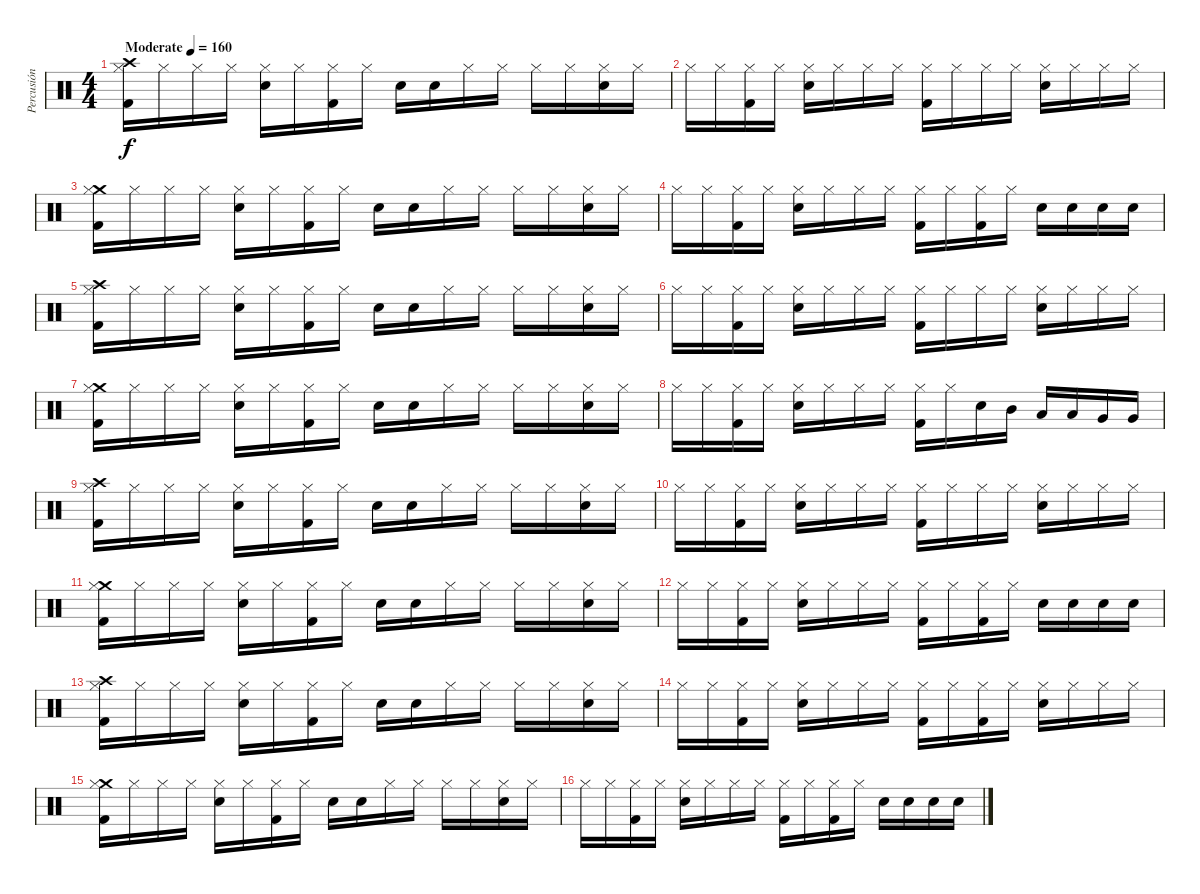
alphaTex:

\track ("Percusión" "Percusión") {instrument percussion}
\staff {score}
\articulation defaults
\ts (4 4)
\tempo (160 "Moderate")
\clef neutral
\ks c
("Crash high (hit)" "Hi-Hat (closed)" "Kick (hit) 2").16{dy f} "Hi-Hat (closed)".16 "Hi-Hat (closed)".16 "Hi-Hat (closed)".16 ("Hi-Hat (closed)" "Snare (hit) 2").16 "Hi-Hat (closed)".16 ("Hi-Hat (closed)" "Kick (hit) 2").16 "Hi-Hat (closed)".16 "Snare (hit) 2".16 "Snare (hit) 2".16 "Hi-Hat (closed)".16 "Hi-Hat (closed)".16 "Hi-Hat (closed)".16 "Hi-Hat (closed)".16 ("Hi-Hat (closed)" "Snare (hit) 2").16 "Hi-Hat (closed)".16 |
"Hi-Hat (closed)".16 "Hi-Hat (closed)".16 ("Hi-Hat (closed)" "Kick (hit) 2").16 "Hi-Hat (closed)".16 ("Hi-Hat (closed)" "Snare (hit) 2").16 "Hi-Hat (closed)".16 "Hi-Hat (closed)".16 "Hi-Hat (closed)".16 ("Hi-Hat (closed)" "Kick (hit) 2").16 "Hi-Hat (closed)".16 "Hi-Hat (closed)".16 "Hi-Hat (closed)".16 ("Hi-Hat (closed)" "Snare (hit) 2").16 "Hi-Hat (closed)".16 "Hi-Hat (closed)".16 "Hi-Hat (closed)".16 |
("Crash medium (hit)" "Hi-Hat (closed)" "Kick (hit) 2").16 "Hi-Hat (closed)".16 "Hi-Hat (closed)".16 "Hi-Hat (closed)".16 ("Hi-Hat (closed)" "Snare (hit) 2").16 "Hi-Hat (closed)".16 ("Hi-Hat (closed)" "Kick (hit) 2").16 "Hi-Hat (closed)".16 "Snare (hit) 2".16 "Snare (hit) 2".16 "Hi-Hat (closed)".16 "Hi-Hat (closed)".16 "Hi-Hat (closed)".16 "Hi-Hat (closed)".16 ("Hi-Hat (closed)" "Snare (hit) 2").16 "Hi-Hat (closed)".16 |
"Hi-Hat (closed)".16 "Hi-Hat (closed)".16 ("Hi-Hat (closed)" "Kick (hit) 2").16 "Hi-Hat (closed)".16 ("Hi-Hat (closed)" "Snare (hit) 2").16 "Hi-Hat (closed)".16 "Hi-Hat (closed)".16 "Hi-Hat (closed)".16 ("Hi-Hat (closed)" "Kick (hit) 2").16 "Hi-Hat (closed)".16 ("Hi-Hat (closed)" "Kick (hit) 2").16 "Hi-Hat (closed)".16 "Snare (hit) 2".16 "Snare (hit) 2".16 "Snare (hit) 2".16 "Snare (hit) 2".16 |
("Crash high (hit)" "Hi-Hat (closed)" "Kick (hit) 2").16 "Hi-Hat (closed)".16 "Hi-Hat (closed)".16 "Hi-Hat (closed)".16 ("Hi-Hat (closed)" "Snare (hit) 2").16 "Hi-Hat (closed)".16 ("Hi-Hat (closed)" "Kick (hit) 2").16 "Hi-Hat (closed)".16 "Snare (hit) 2".16 "Snare (hit) 2".16 "Hi-Hat (closed)".16 "Hi-Hat (closed)".16 "Hi-Hat (closed)".16 "Hi-Hat (closed)".16 ("Hi-Hat (closed)" "Snare (hit) 2").16 "Hi-Hat (closed)".16 |
"Hi-Hat (closed)".16 "Hi-Hat (closed)".16 ("Hi-Hat (closed)" "Kick (hit) 2").16 "Hi-Hat (closed)".16 ("Hi-Hat (closed)" "Snare (hit) 2").16 "Hi-Hat (closed)".16 "Hi-Hat (closed)".16 "Hi-Hat (closed)".16 ("Hi-Hat (closed)" "Kick (hit) 2").16 "Hi-Hat (closed)".16 "Hi-Hat (closed)".16 "Hi-Hat (closed)".16 ("Hi-Hat (closed)" "Snare (hit) 2").16 "Hi-Hat (closed)".16 "Hi-Hat (closed)".16 "Hi-Hat (closed)".16 |
("Crash medium (hit)" "Hi-Hat (closed)" "Kick (hit) 2").16 "Hi-Hat (closed)".16 "Hi-Hat (closed)".16 "Hi-Hat (closed)".16 ("Hi-Hat (closed)" "Snare (hit) 2").16 "Hi-Hat (closed)".16 ("Hi-Hat (closed)" "Kick (hit) 2").16 "Hi-Hat (closed)".16 "Snare (hit) 2".16 "Snare (hit) 2".16 "Hi-Hat (closed)".16 "Hi-Hat (closed)".16 "Hi-Hat (closed)".16 "Hi-Hat (closed)".16 ("Hi-Hat (closed)" "Snare (hit) 2").16 "Hi-Hat (closed)".16 |
"Hi-Hat (closed)".16 "Hi-Hat (closed)".16 ("Hi-Hat (closed)" "Kick (hit) 2").16 "Hi-Hat (closed)".16 ("Hi-Hat (closed)" "Snare (hit) 2").16 "Hi-Hat (closed)".16 "Hi-Hat (closed)".16 "Hi-Hat (closed)".16 ("Hi-Hat (closed)" "Kick (hit) 2").16 "Hi-Hat (closed)".16 "Snare (hit) 2".16 "Mid Tom (hit)".16 "Low Tom (hit)".16 "Low Tom (hit)".16 "Very Low Tom (hit)".16 "Very Low Tom (hit)".16 |
("Crash high (hit)" "Hi-Hat (closed)" "Kick (hit) 2").16 "Hi-Hat (closed)".16 "Hi-Hat (closed)".16 "Hi-Hat (closed)".16 ("Hi-Hat (closed)" "Snare (hit) 2").16 "Hi-Hat (closed)".16 ("Hi-Hat (closed)" "Kick (hit) 2").16 "Hi-Hat (closed)".16 "Snare (hit) 2".16 "Snare (hit) 2".16 "Hi-Hat (closed)".16 "Hi-Hat (closed)".16 "Hi-Hat (closed)".16 "Hi-Hat (closed)".16 ("Hi-Hat (closed)" "Snare (hit) 2").16 "Hi-Hat (closed)".16 |
"Hi-Hat (closed)".16 "Hi-Hat (closed)".16 ("Hi-Hat (closed)" "Kick (hit) 2").16 "Hi-Hat (closed)".16 ("Hi-Hat (closed)" "Snare (hit) 2").16 "Hi-Hat (closed)".16 "Hi-Hat (closed)".16 "Hi-Hat (closed)".16 ("Hi-Hat (closed)" "Kick (hit) 2").16 "Hi-Hat (closed)".16 "Hi-Hat (closed)".16 "Hi-Hat (closed)".16 ("Hi-Hat (closed)" "Snare (hit) 2").16 "Hi-Hat (closed)".16 "Hi-Hat (closed)".16 "Hi-Hat (closed)".16 |
("Crash medium (hit)" "Hi-Hat (closed)" "Kick (hit) 2").16 "Hi-Hat (closed)".16 "Hi-Hat (closed)".16 "Hi-Hat (closed)".16 ("Hi-Hat (closed)" "Snare (hit) 2").16 "Hi-Hat (closed)".16 ("Hi-Hat (closed)" "Kick (hit) 2").16 "Hi-Hat (closed)".16 "Snare (hit) 2".16 "Snare (hit) 2".16 "Hi-Hat (closed)".16 "Hi-Hat (closed)".16 "Hi-Hat (closed)".16 "Hi-Hat (closed)".16 ("Hi-Hat (closed)" "Snare (hit) 2").16 "Hi-Hat (closed)".16 |
"Hi-Hat (closed)".16 "Hi-Hat (closed)".16 ("Hi-Hat (closed)" "Kick (hit) 2").16 "Hi-Hat (closed)".16 ("Hi-Hat (closed)" "Snare (hit) 2").16 "Hi-Hat (closed)".16 "Hi-Hat (closed)".16 "Hi-Hat (closed)".16 ("Hi-Hat (closed)" "Kick (hit) 2").16 "Hi-Hat (closed)".16 ("Hi-Hat (closed)" "Kick (hit) 2").16 "Hi-Hat (closed)".16 "Snare (hit) 2".16 "Snare (hit) 2".16 "Snare (hit) 2".16 "Snare (hit) 2".16 |
("Crash high (hit)" "Hi-Hat (closed)" "Kick (hit) 2").16 "Hi-Hat (closed)".16 "Hi-Hat (closed)".16 "Hi-Hat (closed)".16 ("Hi-Hat (closed)" "Snare (hit) 2").16 "Hi-Hat (closed)".16 ("Hi-Hat (closed)" "Kick (hit) 2").16 "Hi-Hat (closed)".16 "Snare (hit) 2".16 "Snare (hit) 2".16 "Hi-Hat (closed)".16 "Hi-Hat (closed)".16 "Hi-Hat (closed)".16 "Hi-Hat (closed)".16 ("Hi-Hat (closed)" "Snare (hit) 2").16 "Hi-Hat (closed)".16 |
"Hi-Hat (closed)".16 "Hi-Hat (closed)".16 ("Hi-Hat (closed)" "Kick (hit) 2").16 "Hi-Hat (closed)".16 ("Hi-Hat (closed)" "Snare (hit) 2").16 "Hi-Hat (closed)".16 "Hi-Hat (closed)".16 "Hi-Hat (closed)".16 ("Hi-Hat (closed)" "Kick (hit) 2").16 "Hi-Hat (closed)".16 ("Hi-Hat (closed)" "Kick (hit) 2").16 "Hi-Hat (closed)".16 ("Hi-Hat (closed)" "Snare (hit) 2").16 "Hi-Hat (closed)".16 "Hi-Hat (closed)".16 "Hi-Hat (closed)".16 |
("Crash medium (hit)" "Hi-Hat (closed)" "Kick (hit) 2").16 "Hi-Hat (closed)".16 "Hi-Hat (closed)".16 "Hi-Hat (closed)".16 ("Hi-Hat (closed)" "Snare (hit) 2").16 "Hi-Hat (closed)".16 ("Hi-Hat (closed)" "Kick (hit) 2").16 "Hi-Hat (closed)".16 "Snare (hit) 2".16 "Snare (hit) 2".16 "Hi-Hat (closed)".16 "Hi-Hat (closed)".16 "Hi-Hat (closed)".16 "Hi-Hat (closed)".16 ("Hi-Hat (closed)" "Snare (hit) 2").16 "Hi-Hat (closed)".16 |
"Hi-Hat (closed)".16 "Hi-Hat (closed)".16 ("Hi-Hat (closed)" "Kick (hit) 2").16 "Hi-Hat (closed)".16 ("Hi-Hat (closed)" "Snare (hit) 2").16 "Hi-Hat (closed)".16 "Hi-Hat (closed)".16 "Hi-Hat (closed)".16 ("Hi-Hat (closed)" "Kick (hit) 2").16 "Hi-Hat (closed)".16 ("Hi-Hat (closed)" "Kick (hit) 2").16 "Hi-Hat (closed)".16 "Snare (hit) 2".16 "Snare (hit) 2".16 "Snare (hit) 2".16 "Snare (hit) 2".16
